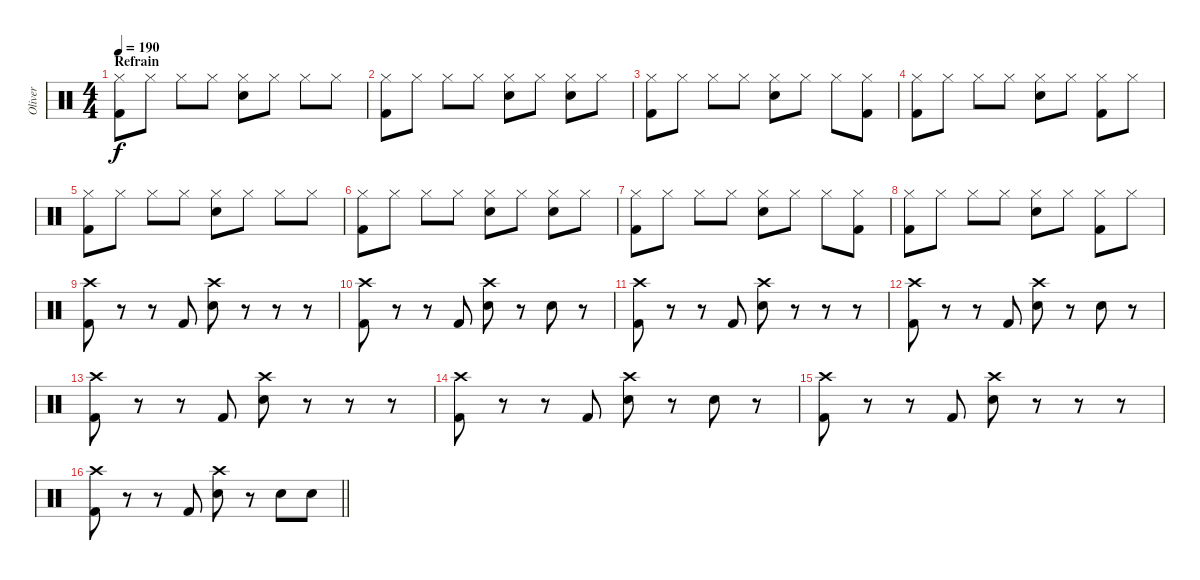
\track ("Oliver" "Oliver") {instrument percussion}
\staff {score}
\articulation defaults
\ts (4 4)
\section ("" "Refrain")
\tempo 190
\clef neutral
\ks c
("Hi-Hat (closed)" "Kick (hit) 2").8{dy f} "Hi-Hat (closed)".8 "Hi-Hat (closed)".8 "Hi-Hat (closed)".8 ("Hi-Hat (closed)" "Snare (hit) 2").8 "Hi-Hat (closed)".8 "Hi-Hat (closed)".8 "Hi-Hat (closed)".8 |
("Hi-Hat (closed)" "Kick (hit) 2").8 "Hi-Hat (closed)".8 "Hi-Hat (closed)".8 "Hi-Hat (closed)".8 ("Hi-Hat (closed)" "Snare (hit) 2").8 "Hi-Hat (closed)".8 ("Hi-Hat (closed)" "Snare (hit) 2").8 "Hi-Hat (closed)".8 |
("Hi-Hat (closed)" "Kick (hit) 2").8 "Hi-Hat (closed)".8 "Hi-Hat (closed)".8 "Hi-Hat (closed)".8 ("Hi-Hat (closed)" "Snare (hit) 2").8 "Hi-Hat (closed)".8 "Hi-Hat (closed)".8 ("Hi-Hat (closed)" "Kick (hit) 2").8 |
("Hi-Hat (closed)" "Kick (hit) 2").8 "Hi-Hat (closed)".8 "Hi-Hat (closed)".8 "Hi-Hat (closed)".8 ("Hi-Hat (closed)" "Snare (hit) 2").8 "Hi-Hat (closed)".8 ("Hi-Hat (closed)" "Kick (hit) 2").8 "Hi-Hat (closed)".8 |
("Hi-Hat (closed)" "Kick (hit) 2").8 "Hi-Hat (closed)".8 "Hi-Hat (closed)".8 "Hi-Hat (closed)".8 ("Hi-Hat (closed)" "Snare (hit) 2").8 "Hi-Hat (closed)".8 "Hi-Hat (closed)".8 "Hi-Hat (closed)".8 |
("Hi-Hat (closed)" "Kick (hit) 2").8 "Hi-Hat (closed)".8 "Hi-Hat (closed)".8 "Hi-Hat (closed)".8 ("Hi-Hat (closed)" "Snare (hit) 2").8 "Hi-Hat (closed)".8 ("Hi-Hat (closed)" "Snare (hit) 2").8 "Hi-Hat (closed)".8 |
("Hi-Hat (closed)" "Kick (hit) 2").8 "Hi-Hat (closed)".8 "Hi-Hat (closed)".8 "Hi-Hat (closed)".8 ("Hi-Hat (closed)" "Snare (hit) 2").8 "Hi-Hat (closed)".8 "Hi-Hat (closed)".8 ("Hi-Hat (closed)" "Kick (hit) 2").8 |
("Hi-Hat (closed)" "Kick (hit) 2").8 "Hi-Hat (closed)".8 "Hi-Hat (closed)".8 "Hi-Hat (closed)".8 ("Hi-Hat (closed)" "Snare (hit) 2").8 "Hi-Hat (closed)".8 ("Hi-Hat (closed)" "Kick (hit) 2").8 "Hi-Hat (closed)".8 |
("Crash high (hit)" "Kick (hit) 2").8 r.8 r.8 "Kick (hit) 2".8 ("Crash high (hit)" "Snare (hit) 2").8 r.8 r.8 r.8 |
("Crash high (hit)" "Kick (hit) 2").8 r.8 r.8 "Kick (hit) 2".8 ("Crash high (hit)" "Snare (hit) 2").8 r.8 "Snare (hit) 2".8 r.8 |
("Crash high (hit)" "Kick (hit) 2").8 r.8 r.8 "Kick (hit) 2".8 ("Crash high (hit)" "Snare (hit) 2").8 r.8 r.8 r.8 |
("Crash high (hit)" "Kick (hit) 2").8 r.8 r.8 "Kick (hit) 2".8 ("Crash high (hit)" "Snare (hit) 2").8 r.8 "Snare (hit) 2".8 r.8 |
("Crash high (hit)" "Kick (hit) 2").8 r.8 r.8 "Kick (hit) 2".8 ("Crash high (hit)" "Snare (hit) 2").8 r.8 r.8 r.8 |
("Crash high (hit)" "Kick (hit) 2").8 r.8 r.8 "Kick (hit) 2".8 ("Crash high (hit)" "Snare (hit) 2").8 r.8 "Snare (hit) 2".8 r.8 |
("Crash high (hit)" "Kick (hit) 2").8 r.8 r.8 "Kick (hit) 2".8 ("Crash high (hit)" "Snare (hit) 2").8 r.8 r.8 r.8 |
\barLineRight lightlight
("Crash high (hit)" "Kick (hit) 2").8 r.8 r.8 "Kick (hit) 2".8 ("Crash high (hit)" "Snare (hit) 2").8 r.8 "Snare (hit) 2".8 "Snare (hit) 2".8
